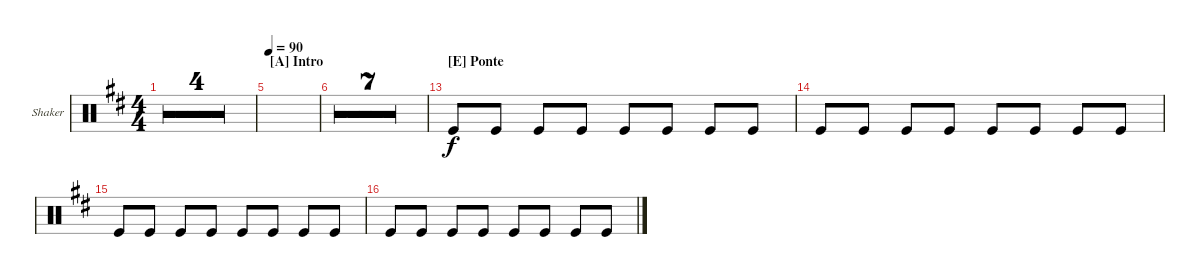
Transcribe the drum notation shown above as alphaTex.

\defaultSystemsLayout 4
\bracketExtendMode groupsimilarinstruments
\firstSystemTrackNameOrientation horizontal
\otherSystemsTrackNameOrientation horizontal
\track ("Shaker" "Shaker") {multiBarRest instrument percussion}
\staff {score}
\articulation defaults
\ts (4 4)
\tempo 165
\clef neutral
\ks d
|
|
|
|
\section ("A" "Intro")
\tempo 90
|
|
|
|
|
|
|
|
\section ("E" "Ponte")
"Kick (hit)".8 "Kick (hit)".8 "Kick (hit)".8 "Kick (hit)".8 "Kick (hit)".8 "Kick (hit)".8 "Kick (hit)".8 "Kick (hit)".8 |
"Kick (hit)".8 "Kick (hit)".8 "Kick (hit)".8 "Kick (hit)".8 "Kick (hit)".8 "Kick (hit)".8 "Kick (hit)".8 "Kick (hit)".8 |
"Kick (hit)".8 "Kick (hit)".8 "Kick (hit)".8 "Kick (hit)".8 "Kick (hit)".8 "Kick (hit)".8 "Kick (hit)".8 "Kick (hit)".8 |
"Kick (hit)".8 "Kick (hit)".8 "Kick (hit)".8 "Kick (hit)".8 "Kick (hit)".8 "Kick (hit)".8 "Kick (hit)".8 "Kick (hit)".8
